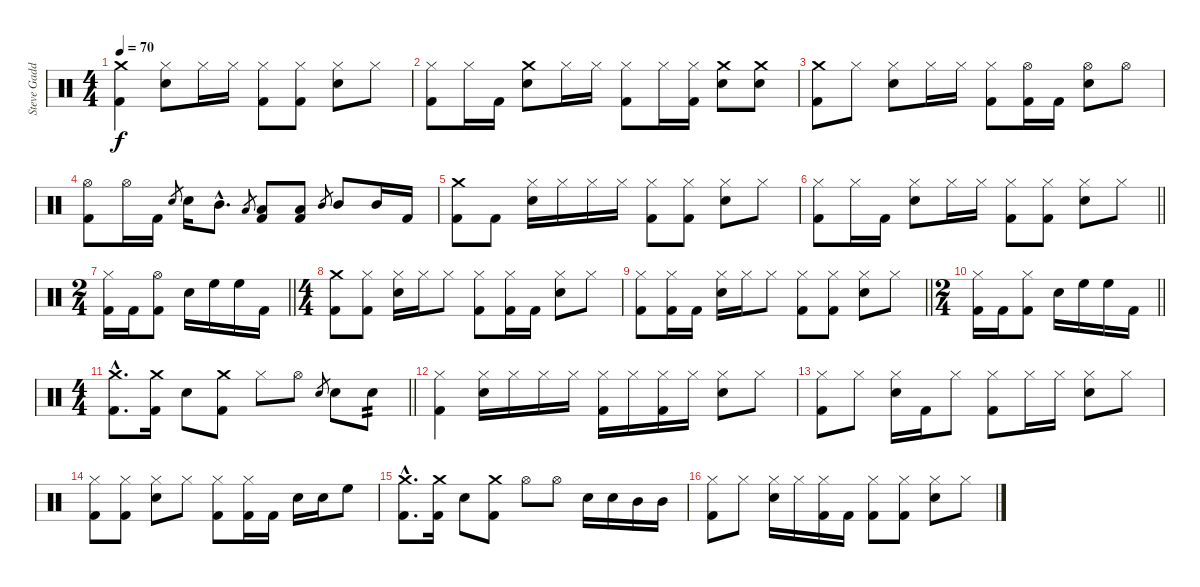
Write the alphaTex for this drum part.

\track ("Steve Gadd Drums" "Steve Gadd") {instrument percussion}
\staff {score}
\articulation defaults
\ts (4 4)
\tempo 70
\clef neutral
\ks c
("Crash medium (hit)" "Kick (hit) 2").4{dy f} ("Hi-Hat (closed)" "Snare (hit) 2").8 "Hi-Hat (closed)".16 "Hi-Hat (closed)".16 ("Hi-Hat (closed)" "Kick (hit) 2").8 ("Hi-Hat (closed)" "Kick (hit) 2").8 ("Hi-Hat (closed)" "Snare (hit) 2").8 "Hi-Hat (closed)".8 |
("Hi-Hat (closed)" "Kick (hit) 2").8 "Hi-Hat (closed)".16 "Kick (hit) 2".16 ("Crash medium (hit)" "Snare (hit) 2").8 "Hi-Hat (closed)".16 "Hi-Hat (closed)".16 ("Hi-Hat (closed)" "Kick (hit) 2").8 "Hi-Hat (closed)".16 ("Hi-Hat (closed)" "Kick (hit) 2").16 ("Crash medium (hit)" "Snare (hit) 2").8 ("Crash medium (hit)" "Snare (hit) 2").8 |
("Crash medium (hit)" "Kick (hit) 2").8 "Hi-Hat (closed)".8 ("Hi-Hat (closed)" "Snare (hit) 2").8 "Hi-Hat (closed)".16 "Hi-Hat (closed)".16 ("Hi-Hat (closed)" "Kick (hit) 2").8 ("Hi-Hat (open)" "Kick (hit) 2").16 "Kick (hit) 2".16 ("Hi-Hat (open)" "Snare (hit) 2").8 "Hi-Hat (open)".8 |
("Hi-Hat (open)" "Kick (hit) 2").8 "Hi-Hat (open)".16 "Kick (hit) 2".16 "Snare (hit) 2".8{gr} "Snare (hit) 2".16 "Mid Tom (hit)"{hac}.8{d} "Low Tom (hit)".8{gr} ("Low Tom (hit)" "Kick (hit) 2").8 ("Low Tom (hit)" "Kick (hit) 2").8 "Mid Tom (hit)".8{gr} "Mid Tom (hit)".8 "Mid Tom (hit)".16 "Kick (hit) 2".16 |
("Crash medium (hit)" "Kick (hit) 2").8 "Kick (hit) 2".8 ("Hi-Hat (closed)" "Snare (hit) 2").16 "Hi-Hat (closed)".16 "Hi-Hat (closed)".16 "Hi-Hat (closed)".16 ("Hi-Hat (closed)" "Kick (hit) 2").8 ("Hi-Hat (closed)" "Kick (hit) 2").8 ("Hi-Hat (closed)" "Snare (hit) 2").8 "Hi-Hat (closed)".8 |
\barLineRight lightlight
("Hi-Hat (closed)" "Kick (hit) 2").8 "Hi-Hat (closed)".16 "Kick (hit) 2".16 ("Hi-Hat (closed)" "Snare (hit) 2").8 "Hi-Hat (closed)".16 "Hi-Hat (closed)".16 ("Hi-Hat (closed)" "Kick (hit) 2").8 ("Hi-Hat (closed)" "Kick (hit) 2").8 ("Hi-Hat (closed)" "Snare (hit) 2").8 "Hi-Hat (closed)".8 |
\ts (2 4)
\barLineRight lightlight
("Hi-Hat (closed)" "Kick (hit) 2").16 "Kick (hit) 2".16 ("Hi-Hat (open)" "Kick (hit) 2").8 "Snare (hit) 2".16 "High Floor Tom (hit)".16 "High Floor Tom (hit)".16 "Kick (hit) 2".16 |
\ts (4 4)
("Crash medium (hit)" "Kick (hit) 2").8 ("Hi-Hat (closed)" "Kick (hit) 2").8 ("Hi-Hat (closed)" "Snare (hit) 2").16 "Hi-Hat (closed)".16 "Hi-Hat (closed)".8 ("Hi-Hat (closed)" "Kick (hit) 2").8 ("Hi-Hat (closed)" "Kick (hit) 2").16 "Kick (hit) 2".16 ("Hi-Hat (closed)" "Snare (hit) 2").8 "Hi-Hat (closed)".8 |
\barLineRight lightlight
("Hi-Hat (closed)" "Kick (hit) 2").8 ("Hi-Hat (closed)" "Kick (hit) 2").16 "Kick (hit) 2".16 ("Hi-Hat (closed)" "Snare (hit) 2").16 "Hi-Hat (closed)".16 "Hi-Hat (closed)".8 ("Hi-Hat (closed)" "Kick (hit) 2").8 ("Hi-Hat (closed)" "Kick (hit) 2").8 ("Hi-Hat (closed)" "Snare (hit) 2").8 "Hi-Hat (closed)".8 |
\ts (2 4)
\barLineRight lightlight
("Hi-Hat (closed)" "Kick (hit) 2").16 "Kick (hit) 2".16 ("Hi-Hat (closed)" "Kick (hit) 2").8 "Snare (hit) 2".16 "High Floor Tom (hit)".16 "High Floor Tom (hit)".16 "Kick (hit) 2".16 |
\ts (4 4)
\barLineRight lightlight
("Crash medium (hit)"{hac} "Kick (hit) 2"{hac}).8{d} ("Crash medium (hit)" "Kick (hit) 2").16 "Snare (hit) 2".8 ("Crash medium (hit)" "Kick (hit) 2").8 "Hi-Hat (closed)".8 "Hi-Hat (open)".8 "Snare (hit) 2".8{gr} "Snare (hit) 2".8 "Snare (hit) 2".8{tp 2} |
("Hi-Hat (closed)" "Kick (hit) 2").4 ("Hi-Hat (closed)" "Snare (hit) 2").16 "Hi-Hat (closed)".16 "Hi-Hat (closed)".16 "Hi-Hat (closed)".16 ("Hi-Hat (closed)" "Kick (hit) 2").16 "Hi-Hat (closed)".16 ("Hi-Hat (closed)" "Kick (hit) 2").16 "Hi-Hat (closed)".16 ("Hi-Hat (closed)" "Snare (hit) 2").8 "Hi-Hat (closed)".8 |
("Hi-Hat (closed)" "Kick (hit) 2").8 "Hi-Hat (closed)".8 ("Hi-Hat (closed)" "Snare (hit) 2").16 "Kick (hit) 2".16 "Hi-Hat (closed)".8 ("Hi-Hat (closed)" "Kick (hit) 2").8 "Hi-Hat (closed)".16 "Hi-Hat (closed)".16 ("Hi-Hat (closed)" "Snare (hit) 2").8 "Hi-Hat (closed)".8 |
("Hi-Hat (closed)" "Kick (hit) 2").8 ("Hi-Hat (closed)" "Kick (hit) 2").8 ("Hi-Hat (closed)" "Snare (hit) 2").8 "Hi-Hat (closed)".8 ("Hi-Hat (closed)" "Kick (hit) 2").8 ("Hi-Hat (closed)" "Kick (hit) 2").16 "Kick (hit) 2".16 "Snare (hit) 2".16 "Snare (hit) 2".16 "High Floor Tom (hit)".8 |
("Crash medium (hit)"{hac} "Kick (hit) 2"{hac}).8{d} ("Crash medium (hit)" "Kick (hit) 2").16 "Snare (hit) 2".8 ("Crash medium (hit)" "Kick (hit) 2").8 "Hi-Hat (open)".8 "Hi-Hat (open)".8 "Snare (hit) 2".16 "Snare (hit) 2".16 "Mid Tom (hit)".16 "Mid Tom (hit)".16 |
("Hi-Hat (closed)" "Kick (hit) 2").8 "Hi-Hat (closed)".8 ("Hi-Hat (closed)" "Snare (hit) 2").16 "Hi-Hat (closed)".16 ("Hi-Hat (closed)" "Kick (hit) 2").16 "Kick (hit) 2".16 ("Hi-Hat (closed)" "Kick (hit) 2").8 ("Hi-Hat (closed)" "Kick (hit) 2").8 ("Hi-Hat (closed)" "Snare (hit) 2").8 "Hi-Hat (closed)".8
